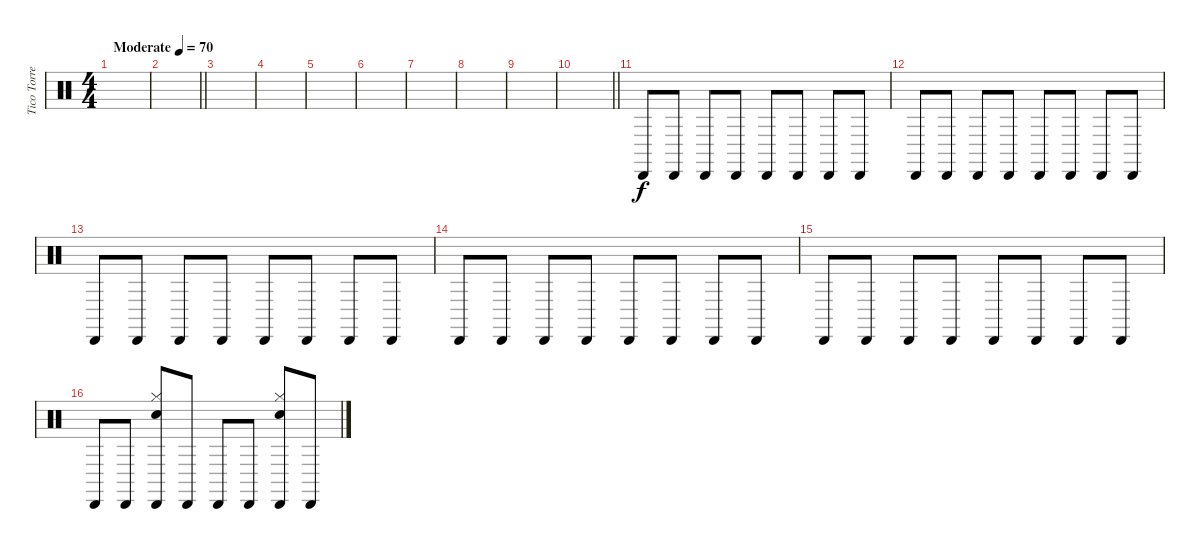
\track ("Tico Torres" "Tico Torre") {instrument percussion}
\staff {score}
\articulation defaults
\ts (4 4)
\section ("" "")
\tempo (70 "Moderate")
\clef neutral
\ks c
|
\barLineRight lightlight
|
\section ("" "")
|
|
|
|
|
|
|
\barLineRight lightlight
|
\section ("" "")
"Cabasa (hit)".8 "Cabasa (hit)".8 "Cabasa (hit)".8 "Cabasa (hit)".8 "Cabasa (hit)".8 "Cabasa (hit)".8 "Cabasa (hit)".8 "Cabasa (hit)".8 |
"Cabasa (hit)".8 "Cabasa (hit)".8 "Cabasa (hit)".8 "Cabasa (hit)".8 "Cabasa (hit)".8 "Cabasa (hit)".8 "Cabasa (hit)".8 "Cabasa (hit)".8 |
"Cabasa (hit)".8 "Cabasa (hit)".8 "Cabasa (hit)".8 "Cabasa (hit)".8 "Cabasa (hit)".8 "Cabasa (hit)".8 "Cabasa (hit)".8 "Cabasa (hit)".8 |
"Cabasa (hit)".8 "Cabasa (hit)".8 "Cabasa (hit)".8 "Cabasa (hit)".8 "Cabasa (hit)".8 "Cabasa (hit)".8 "Cabasa (hit)".8 "Cabasa (hit)".8 |
"Cabasa (hit)".8 "Cabasa (hit)".8 "Cabasa (hit)".8 "Cabasa (hit)".8 "Cabasa (hit)".8 "Cabasa (hit)".8 "Cabasa (hit)".8 "Cabasa (hit)".8 |
"Cabasa (hit)".8 "Cabasa (hit)".8 ("Hi-Hat (closed)" "Snare (hit)" "Cabasa (hit)").8 "Cabasa (hit)".8 "Cabasa (hit)".8 "Cabasa (hit)".8 ("Hi-Hat (closed)" "Snare (hit)" "Cabasa (hit)").8 "Cabasa (hit)".8
